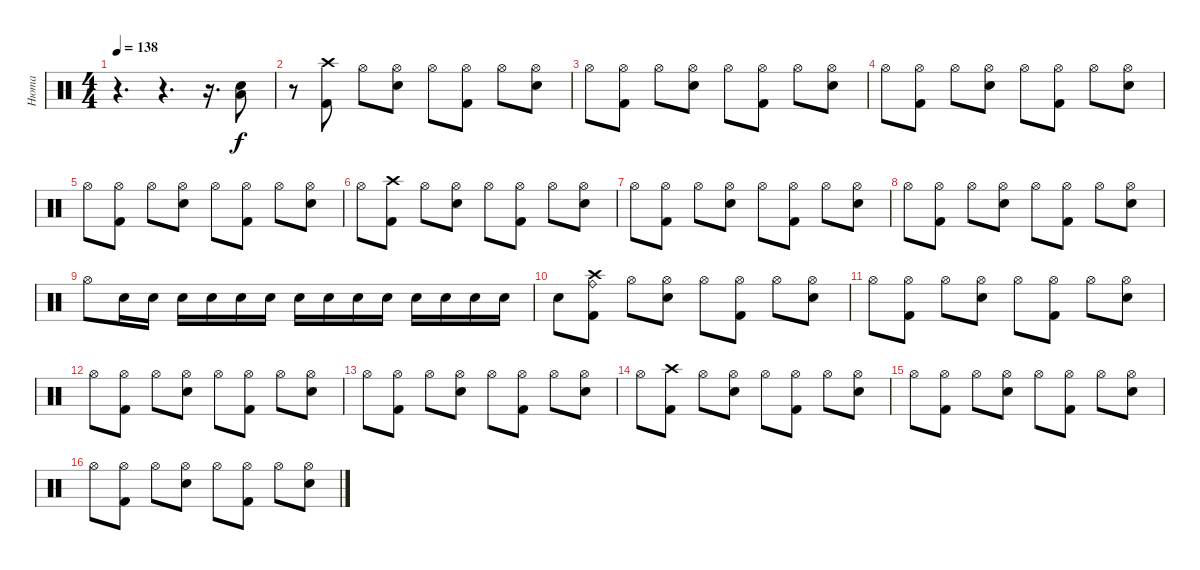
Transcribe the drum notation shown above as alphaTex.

\track ("Нюта" "Нюта") {instrument percussion}
\staff {score}
\articulation defaults
\ts (4 4)
\tempo 138
\clef neutral
\ks c
r.4{d dy f} r.4{d} r.16{d} ("Snare (hit) 2" "Low Tom (hit)").8 |
r.8 ("Crash high (hit)" "Kick (hit) 2").8 "Hi-Hat (open)".8 ("Hi-Hat (open)" "Snare (hit) 2").8 "Hi-Hat (open)".8 ("Hi-Hat (open)" "Kick (hit) 2").8 "Hi-Hat (open)".8 ("Hi-Hat (open)" "Snare (hit) 2").8 |
"Hi-Hat (open)".8 ("Hi-Hat (open)" "Kick (hit) 2").8 "Hi-Hat (open)".8 ("Hi-Hat (open)" "Snare (hit) 2").8 "Hi-Hat (open)".8 ("Hi-Hat (open)" "Kick (hit) 2").8 "Hi-Hat (open)".8 ("Hi-Hat (open)" "Snare (hit) 2").8 |
"Hi-Hat (open)".8 ("Hi-Hat (open)" "Kick (hit) 2").8 "Hi-Hat (open)".8 ("Hi-Hat (open)" "Snare (hit) 2").8 "Hi-Hat (open)".8 ("Hi-Hat (open)" "Kick (hit) 2").8 "Hi-Hat (open)".8 ("Hi-Hat (open)" "Snare (hit) 2").8 |
"Hi-Hat (open)".8 ("Hi-Hat (open)" "Kick (hit) 2").8 "Hi-Hat (open)".8 ("Hi-Hat (open)" "Snare (hit) 2").8 "Hi-Hat (open)".8 ("Hi-Hat (open)" "Kick (hit) 2").8 "Hi-Hat (open)".8 ("Hi-Hat (open)" "Snare (hit) 2").8 |
"Hi-Hat (open)".8 ("Crash high (hit)" "Kick (hit) 2").8 "Hi-Hat (open)".8 ("Hi-Hat (open)" "Snare (hit) 2").8 "Hi-Hat (open)".8 ("Hi-Hat (open)" "Kick (hit) 2").8 "Hi-Hat (open)".8 ("Hi-Hat (open)" "Snare (hit) 2").8 |
"Hi-Hat (open)".8 ("Hi-Hat (open)" "Kick (hit) 2").8 "Hi-Hat (open)".8 ("Hi-Hat (open)" "Snare (hit) 2").8 "Hi-Hat (open)".8 ("Hi-Hat (open)" "Kick (hit) 2").8 "Hi-Hat (open)".8 ("Hi-Hat (open)" "Snare (hit) 2").8 |
"Hi-Hat (open)".8 ("Hi-Hat (open)" "Kick (hit) 2").8 "Hi-Hat (open)".8 ("Hi-Hat (open)" "Snare (hit) 2").8 "Hi-Hat (open)".8 ("Hi-Hat (open)" "Kick (hit) 2").8 "Hi-Hat (open)".8 ("Hi-Hat (open)" "Snare (hit) 2").8 |
"Hi-Hat (open)".8 "Snare (hit) 2".16 "Snare (hit) 2".16 "Snare (hit) 2".16 "Snare (hit) 2".16 "Snare (hit) 2".16 "Snare (hit) 2".16 "Snare (hit) 2".16 "Snare (hit) 2".16 "Snare (hit) 2".16 "Snare (hit) 2".16 "Snare (hit) 2".16 "Snare (hit) 2".16 "Snare (hit) 2".16 "Snare (hit) 2".16 |
"Snare (hit) 2".8 ("Crash high (hit)" "Kick (hit) 2" "Ride (bell)").8 "Hi-Hat (open)".8 ("Hi-Hat (open)" "Snare (hit) 2").8 "Hi-Hat (open)".8 ("Hi-Hat (open)" "Kick (hit) 2").8 "Hi-Hat (open)".8 ("Hi-Hat (open)" "Snare (hit) 2").8 |
"Hi-Hat (open)".8 ("Hi-Hat (open)" "Kick (hit) 2").8 "Hi-Hat (open)".8 ("Hi-Hat (open)" "Snare (hit) 2").8 "Hi-Hat (open)".8 ("Hi-Hat (open)" "Kick (hit) 2").8 "Hi-Hat (open)".8 ("Hi-Hat (open)" "Snare (hit) 2").8 |
"Hi-Hat (open)".8 ("Hi-Hat (open)" "Kick (hit) 2").8 "Hi-Hat (open)".8 ("Hi-Hat (open)" "Snare (hit) 2").8 "Hi-Hat (open)".8 ("Hi-Hat (open)" "Kick (hit) 2").8 "Hi-Hat (open)".8 ("Hi-Hat (open)" "Snare (hit) 2").8 |
"Hi-Hat (open)".8 ("Hi-Hat (open)" "Kick (hit) 2").8 "Hi-Hat (open)".8 ("Hi-Hat (open)" "Snare (hit) 2").8 "Hi-Hat (open)".8 ("Hi-Hat (open)" "Kick (hit) 2").8 "Hi-Hat (open)".8 ("Hi-Hat (open)" "Snare (hit) 2").8 |
"Hi-Hat (open)".8 ("Crash high (hit)" "Kick (hit) 2").8 "Hi-Hat (open)".8 ("Hi-Hat (open)" "Snare (hit) 2").8 "Hi-Hat (open)".8 ("Hi-Hat (open)" "Kick (hit) 2").8 "Hi-Hat (open)".8 ("Hi-Hat (open)" "Snare (hit) 2").8 |
"Hi-Hat (open)".8 ("Hi-Hat (open)" "Kick (hit) 2").8 "Hi-Hat (open)".8 ("Hi-Hat (open)" "Snare (hit) 2").8 "Hi-Hat (open)".8 ("Hi-Hat (open)" "Kick (hit) 2").8 "Hi-Hat (open)".8 ("Hi-Hat (open)" "Snare (hit) 2").8 |
"Hi-Hat (open)".8 ("Hi-Hat (open)" "Kick (hit) 2").8 "Hi-Hat (open)".8 ("Hi-Hat (open)" "Snare (hit) 2").8 "Hi-Hat (open)".8 ("Hi-Hat (open)" "Kick (hit) 2").8 "Hi-Hat (open)".8 ("Hi-Hat (open)" "Snare (hit) 2").8
